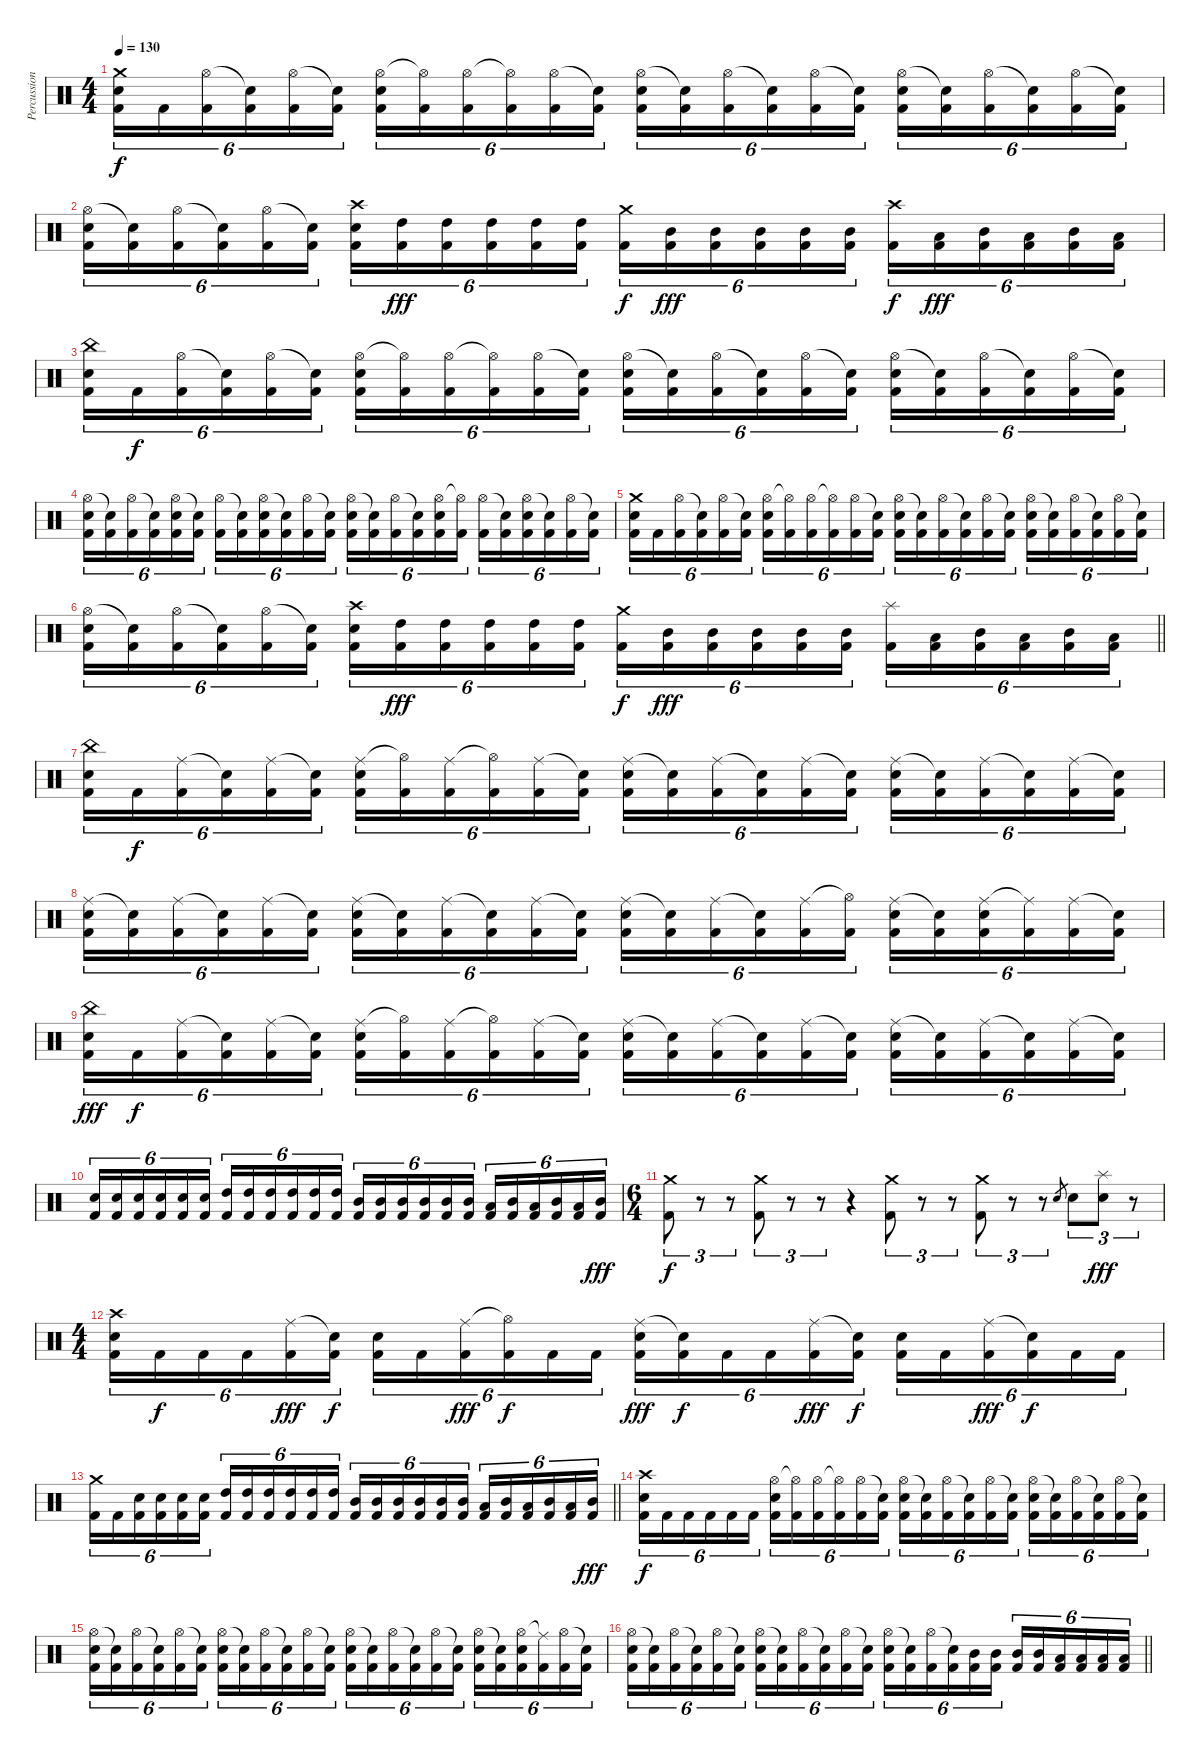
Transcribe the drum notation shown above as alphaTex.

\track ("Percussion" "Percussion") {instrument percussion}
\staff {score}
\articulation defaults
\ts (4 4)
\tempo 130
\clef neutral
\ks c
("Crash medium (hit)" "Snare (hit) 2" "Kick (hit) 2").16{tu (6 4) dy f} "Kick (hit) 2".16{tu (6 4)} ("Hi-Hat (open)" "Kick (hit) 2").16{tu (6 4)} ("Snare (hit)"{t} "Kick (hit) 2").16{tu (6 4)} ("Hi-Hat (open)" "Kick (hit) 2").16{tu (6 4)} ("Snare (hit)"{t} "Kick (hit) 2").16{tu (6 4)} ("Hi-Hat (open)" "Snare (hit) 2" "Kick (hit) 2").16{tu (6 4)} ("Hi-Hat (open)"{t} "Kick (hit) 2").16{tu (6 4)} ("Hi-Hat (open)" "Kick (hit) 2").16{tu (6 4)} ("Hi-Hat (open)"{t} "Kick (hit) 2").16{tu (6 4)} ("Hi-Hat (open)" "Kick (hit) 2").16{tu (6 4)} ("Snare (hit)"{t} "Kick (hit) 2").16{tu (6 4)} ("Hi-Hat (open)" "Snare (hit) 2" "Kick (hit) 2").16{tu (6 4)} ("Snare (hit)"{t} "Kick (hit) 2").16{tu (6 4)} ("Hi-Hat (open)" "Kick (hit) 2").16{tu (6 4)} ("Snare (hit)"{t} "Kick (hit) 2").16{tu (6 4)} ("Hi-Hat (open)" "Kick (hit) 2").16{tu (6 4)} ("Snare (hit)"{t} "Kick (hit) 2").16{tu (6 4)} ("Hi-Hat (open)" "Snare (hit) 2" "Kick (hit) 2").16{tu (6 4)} ("Snare (hit)"{t} "Kick (hit) 2").16{tu (6 4)} ("Hi-Hat (open)" "Kick (hit) 2").16{tu (6 4)} ("Snare (hit)"{t} "Kick (hit) 2").16{tu (6 4)} ("Hi-Hat (open)" "Kick (hit) 2").16{tu (6 4)} ("Snare (hit)"{t} "Kick (hit) 2").16{tu (6 4)} |
("Hi-Hat (open)" "Snare (hit) 2" "Kick (hit) 2").16{tu (6 4)} ("Snare (hit)"{t} "Kick (hit) 2").16{tu (6 4)} ("Hi-Hat (open)" "Kick (hit) 2").16{tu (6 4)} ("Snare (hit)"{t} "Kick (hit) 2").16{tu (6 4)} ("Hi-Hat (open)" "Kick (hit) 2").16{tu (6 4)} ("Snare (hit)"{t} "Kick (hit) 2").16{tu (6 4)} ("Crash high (hit)" "Snare (hit) 2" "Kick (hit) 2").16{tu (6 4)} ("High Tom (hit)" "Kick (hit) 2").16{tu (6 4) dy fff} ("High Tom (hit)" "Kick (hit) 2").16{tu (6 4)} ("High Tom (hit)" "Kick (hit) 2").16{tu (6 4)} ("High Tom (hit)" "Kick (hit) 2").16{tu (6 4)} ("High Tom (hit)" "Kick (hit) 2").16{tu (6 4)} ("Crash medium (hit)" "Kick (hit) 2").16{tu (6 4) dy f} ("Mid Tom (hit)" "Kick (hit) 2").16{tu (6 4) dy fff} ("Mid Tom (hit)" "Kick (hit) 2").16{tu (6 4)} ("Mid Tom (hit)" "Kick (hit) 2").16{tu (6 4)} ("Mid Tom (hit)" "Kick (hit) 2").16{tu (6 4)} ("Mid Tom (hit)" "Kick (hit) 2").16{tu (6 4)} ("Crash high (hit)" "Kick (hit) 2").16{tu (6 4) dy f} ("Low Tom (hit)" "Kick (hit) 2").16{tu (6 4) dy fff} ("Mid Tom (hit)" "Kick (hit) 2").16{tu (6 4)} ("Low Tom (hit)" "Kick (hit) 2").16{tu (6 4)} ("Mid Tom (hit)" "Kick (hit) 2").16{tu (6 4)} ("Low Tom (hit)" "Kick (hit) 2").16{tu (6 4)} |
("China (hit)" "Snare (hit) 2" "Kick (hit) 2").16{tu (6 4)} "Kick (hit) 2".16{tu (6 4) dy f} ("Hi-Hat (open)" "Kick (hit) 2").16{tu (6 4)} ("Snare (hit)"{t} "Kick (hit) 2").16{tu (6 4)} ("Hi-Hat (open)" "Kick (hit) 2").16{tu (6 4)} ("Snare (hit)"{t} "Kick (hit) 2").16{tu (6 4)} ("Hi-Hat (open)" "Snare (hit) 2" "Kick (hit) 2").16{tu (6 4)} ("Hi-Hat (open)"{t} "Kick (hit) 2").16{tu (6 4)} ("Hi-Hat (open)" "Kick (hit) 2").16{tu (6 4)} ("Hi-Hat (open)"{t} "Kick (hit) 2").16{tu (6 4)} ("Hi-Hat (open)" "Kick (hit) 2").16{tu (6 4)} ("Snare (hit)"{t} "Kick (hit) 2").16{tu (6 4)} ("Hi-Hat (open)" "Snare (hit) 2" "Kick (hit) 2").16{tu (6 4)} ("Snare (hit)"{t} "Kick (hit) 2").16{tu (6 4)} ("Hi-Hat (open)" "Kick (hit) 2").16{tu (6 4)} ("Snare (hit)"{t} "Kick (hit) 2").16{tu (6 4)} ("Hi-Hat (open)" "Kick (hit) 2").16{tu (6 4)} ("Snare (hit)"{t} "Kick (hit) 2").16{tu (6 4)} ("Hi-Hat (open)" "Snare (hit) 2" "Kick (hit) 2").16{tu (6 4)} ("Snare (hit)"{t} "Kick (hit) 2").16{tu (6 4)} ("Hi-Hat (open)" "Kick (hit) 2").16{tu (6 4)} ("Snare (hit)"{t} "Kick (hit) 2").16{tu (6 4)} ("Hi-Hat (open)" "Kick (hit) 2").16{tu (6 4)} ("Snare (hit)"{t} "Kick (hit) 2").16{tu (6 4)} |
("Hi-Hat (open)" "Snare (hit) 2" "Kick (hit) 2").16{tu (6 4)} ("Snare (hit)"{t} "Kick (hit) 2").16{tu (6 4)} ("Hi-Hat (open)" "Kick (hit) 2").16{tu (6 4)} ("Snare (hit)"{t} "Kick (hit) 2").16{tu (6 4)} ("Hi-Hat (open)" "Snare (hit) 2" "Kick (hit) 2").16{tu (6 4)} ("Snare (hit)"{t} "Kick (hit) 2").16{tu (6 4)} ("Hi-Hat (open)" "Kick (hit) 2").16{tu (6 4)} ("Snare (hit)"{t} "Kick (hit) 2").16{tu (6 4)} ("Hi-Hat (open)" "Snare (hit) 2" "Kick (hit) 2").16{tu (6 4)} ("Snare (hit)"{t} "Kick (hit) 2").16{tu (6 4)} ("Hi-Hat (open)" "Kick (hit) 2").16{tu (6 4)} ("Snare (hit)"{t} "Kick (hit) 2").16{tu (6 4)} ("Hi-Hat (open)" "Snare (hit) 2" "Kick (hit) 2").16{tu (6 4)} ("Snare (hit)"{t} "Kick (hit) 2").16{tu (6 4)} ("Hi-Hat (open)" "Kick (hit) 2").16{tu (6 4)} ("Snare (hit)"{t} "Kick (hit) 2").16{tu (6 4)} ("Hi-Hat (open)" "Snare (hit) 2" "Kick (hit) 2").16{tu (6 4)} ("Hi-Hat (open)"{t} "Kick (hit) 2").16{tu (6 4)} ("Hi-Hat (open)" "Kick (hit) 2").16{tu (6 4)} ("Snare (hit)"{t} "Kick (hit) 2").16{tu (6 4)} ("Hi-Hat (open)" "Snare (hit) 2" "Kick (hit) 2").16{tu (6 4)} ("Snare (hit)"{t} "Kick (hit) 2").16{tu (6 4)} ("Hi-Hat (open)" "Kick (hit) 2").16{tu (6 4)} ("Snare (hit)"{t} "Kick (hit) 2").16{tu (6 4)} |
("Crash medium (hit)" "Snare (hit) 2" "Kick (hit) 2").16{tu (6 4)} "Kick (hit) 2".16{tu (6 4)} ("Hi-Hat (open)" "Kick (hit) 2").16{tu (6 4)} ("Snare (hit)"{t} "Kick (hit) 2").16{tu (6 4)} ("Hi-Hat (open)" "Kick (hit) 2").16{tu (6 4)} ("Snare (hit)"{t} "Kick (hit) 2").16{tu (6 4)} ("Hi-Hat (open)" "Snare (hit) 2" "Kick (hit) 2").16{tu (6 4)} ("Hi-Hat (open)"{t} "Kick (hit) 2").16{tu (6 4)} ("Hi-Hat (open)" "Kick (hit) 2").16{tu (6 4)} ("Hi-Hat (open)"{t} "Kick (hit) 2").16{tu (6 4)} ("Hi-Hat (open)" "Kick (hit) 2").16{tu (6 4)} ("Snare (hit)"{t} "Kick (hit) 2").16{tu (6 4)} ("Hi-Hat (open)" "Snare (hit) 2" "Kick (hit) 2").16{tu (6 4)} ("Snare (hit)"{t} "Kick (hit) 2").16{tu (6 4)} ("Hi-Hat (open)" "Kick (hit) 2").16{tu (6 4)} ("Snare (hit)"{t} "Kick (hit) 2").16{tu (6 4)} ("Hi-Hat (open)" "Kick (hit) 2").16{tu (6 4)} ("Snare (hit)"{t} "Kick (hit) 2").16{tu (6 4)} ("Hi-Hat (open)" "Snare (hit) 2" "Kick (hit) 2").16{tu (6 4)} ("Snare (hit)"{t} "Kick (hit) 2").16{tu (6 4)} ("Hi-Hat (open)" "Kick (hit) 2").16{tu (6 4)} ("Snare (hit)"{t} "Kick (hit) 2").16{tu (6 4)} ("Hi-Hat (open)" "Kick (hit) 2").16{tu (6 4)} ("Snare (hit)"{t} "Kick (hit) 2").16{tu (6 4)} |
\barLineRight lightlight
("Hi-Hat (open)" "Snare (hit) 2" "Kick (hit) 2").16{tu (6 4)} ("Snare (hit)"{t} "Kick (hit) 2").16{tu (6 4)} ("Hi-Hat (open)" "Kick (hit) 2").16{tu (6 4)} ("Snare (hit)"{t} "Kick (hit) 2").16{tu (6 4)} ("Hi-Hat (open)" "Kick (hit) 2").16{tu (6 4)} ("Snare (hit)"{t} "Kick (hit) 2").16{tu (6 4)} ("Crash high (hit)" "Snare (hit) 2" "Kick (hit) 2").16{tu (6 4)} ("High Tom (hit)" "Kick (hit) 2").16{tu (6 4) dy fff} ("High Tom (hit)" "Kick (hit) 2").16{tu (6 4)} ("High Tom (hit)" "Kick (hit) 2").16{tu (6 4)} ("High Tom (hit)" "Kick (hit) 2").16{tu (6 4)} ("High Tom (hit)" "Kick (hit) 2").16{tu (6 4)} ("Crash medium (hit)" "Kick (hit) 2").16{tu (6 4) dy f} ("Mid Tom (hit)" "Kick (hit) 2").16{tu (6 4) dy fff} ("Mid Tom (hit)" "Kick (hit) 2").16{tu (6 4)} ("Mid Tom (hit)" "Kick (hit) 2").16{tu (6 4)} ("Mid Tom (hit)" "Kick (hit) 2").16{tu (6 4)} ("Mid Tom (hit)" "Kick (hit) 2").16{tu (6 4)} ("Splash (hit)" "Kick (hit) 2").16{tu (6 4)} ("Low Tom (hit)" "Kick (hit) 2").16{tu (6 4)} ("Mid Tom (hit)" "Kick (hit) 2").16{tu (6 4)} ("Low Tom (hit)" "Kick (hit) 2").16{tu (6 4)} ("Mid Tom (hit)" "Kick (hit) 2").16{tu (6 4)} ("Low Tom (hit)" "Kick (hit) 2").16{tu (6 4)} |
("China (hit)" "Snare (hit) 2" "Kick (hit) 2").16{tu (6 4)} "Kick (hit) 2".16{tu (6 4) dy f} ("Ride (middle)" "Kick (hit) 2").16{tu (6 4)} ("Snare (hit)"{t} "Kick (hit) 2").16{tu (6 4)} ("Ride (middle)" "Kick (hit) 2").16{tu (6 4)} ("Snare (hit)"{t} "Kick (hit) 2").16{tu (6 4)} ("Ride (middle)" "Snare (hit) 2" "Kick (hit) 2").16{tu (6 4)} ("Hi-Hat (open)"{t} "Kick (hit) 2").16{tu (6 4)} ("Ride (middle)" "Kick (hit) 2").16{tu (6 4)} ("Hi-Hat (open)"{t} "Kick (hit) 2").16{tu (6 4)} ("Ride (middle)" "Kick (hit) 2").16{tu (6 4)} ("Snare (hit)"{t} "Kick (hit) 2").16{tu (6 4)} ("Ride (middle)" "Snare (hit) 2" "Kick (hit) 2").16{tu (6 4)} ("Snare (hit)"{t} "Kick (hit) 2").16{tu (6 4)} ("Ride (middle)" "Kick (hit) 2").16{tu (6 4)} ("Snare (hit)"{t} "Kick (hit) 2").16{tu (6 4)} ("Ride (middle)" "Kick (hit) 2").16{tu (6 4)} ("Snare (hit)"{t} "Kick (hit) 2").16{tu (6 4)} ("Ride (middle)" "Snare (hit) 2" "Kick (hit) 2").16{tu (6 4)} ("Snare (hit)"{t} "Kick (hit) 2").16{tu (6 4)} ("Ride (middle)" "Kick (hit) 2").16{tu (6 4)} ("Snare (hit)"{t} "Kick (hit) 2").16{tu (6 4)} ("Ride (middle)" "Kick (hit) 2").16{tu (6 4)} ("Snare (hit)"{t} "Kick (hit) 2").16{tu (6 4)} |
("Ride (middle)" "Snare (hit) 2" "Kick (hit) 2").16{tu (6 4)} ("Snare (hit)"{t} "Kick (hit) 2").16{tu (6 4)} ("Ride (middle)" "Kick (hit) 2").16{tu (6 4)} ("Snare (hit)"{t} "Kick (hit) 2").16{tu (6 4)} ("Ride (middle)" "Kick (hit) 2").16{tu (6 4)} ("Snare (hit)"{t} "Kick (hit) 2").16{tu (6 4)} ("Ride (middle)" "Snare (hit) 2" "Kick (hit) 2").16{tu (6 4)} ("Snare (hit)"{t} "Kick (hit) 2").16{tu (6 4)} ("Ride (middle)" "Kick (hit) 2").16{tu (6 4)} ("Snare (hit)"{t} "Kick (hit) 2").16{tu (6 4)} ("Ride (middle)" "Kick (hit) 2").16{tu (6 4)} ("Snare (hit)"{t} "Kick (hit) 2").16{tu (6 4)} ("Ride (middle)" "Snare (hit) 2" "Kick (hit) 2").16{tu (6 4)} ("Snare (hit)"{t} "Kick (hit) 2").16{tu (6 4)} ("Ride (middle)" "Kick (hit) 2").16{tu (6 4)} ("Snare (hit)"{t} "Kick (hit) 2").16{tu (6 4)} ("Ride (middle)" "Kick (hit) 2").16{tu (6 4)} ("Hi-Hat (open)"{t} "Kick (hit) 2").16{tu (6 4)} ("Ride (middle)" "Snare (hit) 2" "Kick (hit) 2").16{tu (6 4)} ("Snare (hit)"{t} "Kick (hit) 2").16{tu (6 4)} ("Ride (middle)" "Snare (hit) 2" "Kick (hit) 2").16{tu (6 4)} ("Ride (middle)"{t} "Kick (hit) 2").16{tu (6 4)} ("Ride (middle)" "Kick (hit) 2").16{tu (6 4)} ("Snare (hit)"{t} "Kick (hit) 2").16{tu (6 4)} |
("China (hit)" "Snare (hit) 2" "Kick (hit) 2").16{tu (6 4) dy fff} "Kick (hit) 2".16{tu (6 4) dy f} ("Ride (middle)" "Kick (hit) 2").16{tu (6 4)} ("Snare (hit)"{t} "Kick (hit) 2").16{tu (6 4)} ("Ride (middle)" "Kick (hit) 2").16{tu (6 4)} ("Snare (hit)"{t} "Kick (hit) 2").16{tu (6 4)} ("Ride (middle)" "Snare (hit) 2" "Kick (hit) 2").16{tu (6 4)} ("Hi-Hat (open)"{t} "Kick (hit) 2").16{tu (6 4)} ("Ride (middle)" "Kick (hit) 2").16{tu (6 4)} ("Hi-Hat (open)"{t} "Kick (hit) 2").16{tu (6 4)} ("Ride (middle)" "Kick (hit) 2").16{tu (6 4)} ("Snare (hit)"{t} "Kick (hit) 2").16{tu (6 4)} ("Ride (middle)" "Snare (hit) 2" "Kick (hit) 2").16{tu (6 4)} ("Snare (hit)"{t} "Kick (hit) 2").16{tu (6 4)} ("Ride (middle)" "Kick (hit) 2").16{tu (6 4)} ("Snare (hit)"{t} "Kick (hit) 2").16{tu (6 4)} ("Ride (middle)" "Kick (hit) 2").16{tu (6 4)} ("Snare (hit)"{t} "Kick (hit) 2").16{tu (6 4)} ("Ride (middle)" "Snare (hit) 2" "Kick (hit) 2").16{tu (6 4)} ("Snare (hit)"{t} "Kick (hit) 2").16{tu (6 4)} ("Ride (middle)" "Kick (hit) 2").16{tu (6 4)} ("Snare (hit)"{t} "Kick (hit) 2").16{tu (6 4)} ("Ride (middle)" "Kick (hit) 2").16{tu (6 4)} ("Snare (hit)"{t} "Kick (hit) 2").16{tu (6 4)} |
("Snare (hit) 2" "Kick (hit) 2").16{tu (6 4)} ("Snare (hit) 2" "Kick (hit) 2").16{tu (6 4)} ("Snare (hit) 2" "Kick (hit) 2").16{tu (6 4)} ("Snare (hit) 2" "Kick (hit) 2").16{tu (6 4)} ("Snare (hit) 2" "Kick (hit) 2").16{tu (6 4)} ("Snare (hit) 2" "Kick (hit) 2").16{tu (6 4)} ("High Tom (hit)" "Kick (hit) 2").16{tu (6 4)} ("High Tom (hit)" "Kick (hit) 2").16{tu (6 4)} ("High Tom (hit)" "Kick (hit) 2").16{tu (6 4)} ("High Tom (hit)" "Kick (hit) 2").16{tu (6 4)} ("High Tom (hit)" "Kick (hit) 2").16{tu (6 4)} ("High Tom (hit)" "Kick (hit) 2").16{tu (6 4)} ("Mid Tom (hit)" "Kick (hit) 2").16{tu (6 4)} ("Mid Tom (hit)" "Kick (hit) 2").16{tu (6 4)} ("Mid Tom (hit)" "Kick (hit) 2").16{tu (6 4)} ("Mid Tom (hit)" "Kick (hit) 2").16{tu (6 4)} ("Mid Tom (hit)" "Kick (hit) 2").16{tu (6 4)} ("Mid Tom (hit)" "Kick (hit) 2").16{tu (6 4)} ("Low Tom (hit)" "Kick (hit) 2").16{tu (6 4)} ("Mid Tom (hit)" "Kick (hit) 2").16{tu (6 4)} ("Low Tom (hit)" "Kick (hit) 2").16{tu (6 4)} ("Mid Tom (hit)" "Kick (hit) 2").16{tu (6 4)} ("Low Tom (hit)" "Kick (hit) 2").16{tu (6 4)} ("Mid Tom (hit)" "Kick (hit) 2").16{tu (6 4) dy fff} |
\ts (6 4)
("Crash medium (hit)" "Kick (hit) 2").8{tu (3 2) dy f} r.8{tu (3 2)} r.8{tu (3 2)} ("Crash medium (hit)" "Kick (hit) 2").8{tu (3 2)} r.8{tu (3 2)} r.8{tu (3 2) volume 0} r.4 ("Crash medium (hit)" "Kick (hit) 2").8{tu (3 2) volume 15} r.8{tu (3 2)} r.8{tu (3 2)} ("Crash medium (hit)" "Kick (hit) 2").8{tu (3 2)} r.8{tu (3 2)} r.8{tu (3 2)} "Snare (hit) 2".8{gr} "Snare (hit) 2".8{tu (3 2)} ("Splash (hit)" "Snare (hit) 2").8{tu (3 2) dy fff} r.8{tu (3 2)} |
\ts (4 4)
("Crash high (hit)" "Snare (hit) 2" "Kick (hit) 2").16{tu (6 4)} "Kick (hit) 2".16{tu (6 4) dy f} "Kick (hit) 2".16{tu (6 4)} "Kick (hit) 2".16{tu (6 4)} ("Ride (middle)" "Kick (hit) 2").16{tu (6 4) dy fff} ("Snare (hit)"{t} "Kick (hit) 2").16{tu (6 4) dy f} ("Snare (hit) 2" "Kick (hit) 2").16{tu (6 4)} "Kick (hit) 2".16{tu (6 4)} ("Ride (middle)" "Kick (hit) 2").16{tu (6 4) dy fff} ("Hi-Hat (open)"{t} "Kick (hit) 2").16{tu (6 4) dy f} "Kick (hit) 2".16{tu (6 4)} "Kick (hit) 2".16{tu (6 4)} ("Ride (middle)" "Snare (hit) 2" "Kick (hit) 2").16{tu (6 4) dy fff} ("Snare (hit)"{t} "Kick (hit) 2").16{tu (6 4) dy f} "Kick (hit) 2".16{tu (6 4)} "Kick (hit) 2".16{tu (6 4)} ("Ride (middle)" "Kick (hit) 2").16{tu (6 4) dy fff} ("Snare (hit)"{t} "Kick (hit) 2").16{tu (6 4) dy f} ("Snare (hit) 2" "Kick (hit) 2").16{tu (6 4)} "Kick (hit) 2".16{tu (6 4)} ("Ride (middle)" "Kick (hit) 2").16{tu (6 4) dy fff} ("Snare (hit)"{t} "Kick (hit) 2").16{tu (6 4) dy f} "Kick (hit) 2".16{tu (6 4)} "Kick (hit) 2".16{tu (6 4)} |
\barLineRight lightlight
("Crash medium (hit)" "Kick (hit) 2").16{tu (6 4)} "Kick (hit) 2".16{tu (6 4)} ("Snare (hit) 2" "Kick (hit) 2").16{tu (6 4)} ("Snare (hit) 2" "Kick (hit) 2").16{tu (6 4)} ("Snare (hit) 2" "Kick (hit) 2").16{tu (6 4)} ("Snare (hit) 2" "Kick (hit) 2").16{tu (6 4)} ("High Tom (hit)" "Kick (hit) 2").16{tu (6 4)} ("High Tom (hit)" "Kick (hit) 2").16{tu (6 4)} ("High Tom (hit)" "Kick (hit) 2").16{tu (6 4)} ("High Tom (hit)" "Kick (hit) 2").16{tu (6 4)} ("High Tom (hit)" "Kick (hit) 2").16{tu (6 4)} ("High Tom (hit)" "Kick (hit) 2").16{tu (6 4)} ("Mid Tom (hit)" "Kick (hit) 2").16{tu (6 4)} ("Mid Tom (hit)" "Kick (hit) 2").16{tu (6 4)} ("Mid Tom (hit)" "Kick (hit) 2").16{tu (6 4)} ("Mid Tom (hit)" "Kick (hit) 2").16{tu (6 4)} ("Mid Tom (hit)" "Kick (hit) 2").16{tu (6 4)} ("Mid Tom (hit)" "Kick (hit) 2").16{tu (6 4)} ("Low Tom (hit)" "Kick (hit) 2").16{tu (6 4)} ("Mid Tom (hit)" "Kick (hit) 2").16{tu (6 4)} ("Low Tom (hit)" "Kick (hit) 2").16{tu (6 4)} ("Mid Tom (hit)" "Kick (hit) 2").16{tu (6 4)} ("Low Tom (hit)" "Kick (hit) 2").16{tu (6 4)} ("Mid Tom (hit)" "Kick (hit) 2").16{tu (6 4) dy fff} |
("Crash high (hit)" "Snare (hit) 2" "Kick (hit) 2").16{tu (6 4) dy f} "Kick (hit) 2".16{tu (6 4)} "Kick (hit) 2".16{tu (6 4)} "Kick (hit) 2".16{tu (6 4)} "Kick (hit) 2".16{tu (6 4)} "Kick (hit) 2".16{tu (6 4)} ("Hi-Hat (open)" "Snare (hit) 2" "Kick (hit) 2").16{tu (6 4)} ("Hi-Hat (open)"{t} "Kick (hit) 2").16{tu (6 4)} ("Hi-Hat (open)" "Kick (hit) 2").16{tu (6 4)} ("Hi-Hat (open)"{t} "Kick (hit) 2").16{tu (6 4)} ("Hi-Hat (open)" "Kick (hit) 2").16{tu (6 4)} ("Snare (hit)"{t} "Kick (hit) 2").16{tu (6 4)} ("Hi-Hat (open)" "Snare (hit) 2" "Kick (hit) 2").16{tu (6 4)} ("Snare (hit)"{t} "Kick (hit) 2").16{tu (6 4)} ("Hi-Hat (open)" "Kick (hit) 2").16{tu (6 4)} ("Snare (hit)"{t} "Kick (hit) 2").16{tu (6 4)} ("Hi-Hat (open)" "Kick (hit) 2").16{tu (6 4)} ("Snare (hit)"{t} "Kick (hit) 2").16{tu (6 4)} ("Hi-Hat (open)" "Snare (hit) 2" "Kick (hit) 2").16{tu (6 4)} ("Snare (hit)"{t} "Kick (hit) 2").16{tu (6 4)} ("Hi-Hat (open)" "Kick (hit) 2").16{tu (6 4)} ("Snare (hit)"{t} "Kick (hit) 2").16{tu (6 4)} ("Hi-Hat (open)" "Kick (hit) 2").16{tu (6 4)} ("Snare (hit)"{t} "Kick (hit) 2").16{tu (6 4)} |
("Hi-Hat (open)" "Snare (hit) 2" "Kick (hit) 2").16{tu (6 4)} ("Snare (hit)"{t} "Kick (hit) 2").16{tu (6 4)} ("Hi-Hat (open)" "Kick (hit) 2").16{tu (6 4)} ("Snare (hit)"{t} "Kick (hit) 2").16{tu (6 4)} ("Hi-Hat (open)" "Kick (hit) 2").16{tu (6 4)} ("Snare (hit)"{t} "Kick (hit) 2").16{tu (6 4)} ("Hi-Hat (open)" "Snare (hit) 2" "Kick (hit) 2").16{tu (6 4)} ("Snare (hit)"{t} "Kick (hit) 2").16{tu (6 4)} ("Hi-Hat (open)" "Kick (hit) 2").16{tu (6 4)} ("Snare (hit)"{t} "Kick (hit) 2").16{tu (6 4)} ("Hi-Hat (open)" "Kick (hit) 2").16{tu (6 4)} ("Snare (hit)"{t} "Kick (hit) 2").16{tu (6 4)} ("Hi-Hat (open)" "Snare (hit) 2" "Kick (hit) 2").16{tu (6 4)} ("Snare (hit)"{t} "Kick (hit) 2").16{tu (6 4)} ("Hi-Hat (open)" "Kick (hit) 2").16{tu (6 4)} ("Snare (hit)"{t} "Kick (hit) 2").16{tu (6 4)} ("Hi-Hat (open)" "Kick (hit) 2").16{tu (6 4)} ("Snare (hit)"{t} "Kick (hit) 2").16{tu (6 4)} ("Hi-Hat (open)" "Snare (hit) 2" "Kick (hit) 2").16{tu (6 4)} ("Snare (hit)"{t} "Kick (hit) 2").16{tu (6 4)} ("Hi-Hat (open)" "Snare (hit) 2" "Kick (hit) 2").16{tu (6 4)} ("Ride (middle)"{t} "Kick (hit) 2").16{tu (6 4)} ("Hi-Hat (open)" "Kick (hit) 2").16{tu (6 4)} ("Snare (hit)"{t} "Kick (hit) 2").16{tu (6 4)} |
\barLineRight lightlight
("Hi-Hat (open)" "Snare (hit) 2" "Kick (hit) 2").16{tu (6 4)} ("Snare (hit)"{t} "Kick (hit) 2").16{tu (6 4)} ("Hi-Hat (open)" "Kick (hit) 2").16{tu (6 4)} ("Snare (hit)"{t} "Kick (hit) 2").16{tu (6 4)} ("Hi-Hat (open)" "Kick (hit) 2").16{tu (6 4)} ("Snare (hit)"{t} "Kick (hit) 2").16{tu (6 4)} ("Hi-Hat (open)" "Snare (hit) 2" "Kick (hit) 2").16{tu (6 4)} ("Snare (hit)"{t} "Kick (hit) 2").16{tu (6 4)} ("Hi-Hat (open)" "Kick (hit) 2").16{tu (6 4)} ("Snare (hit)"{t} "Kick (hit) 2").16{tu (6 4)} ("Hi-Hat (open)" "Kick (hit) 2").16{tu (6 4)} ("Snare (hit)"{t} "Kick (hit) 2").16{tu (6 4)} ("Hi-Hat (open)" "Snare (hit) 2" "Kick (hit) 2").16{tu (6 4)} ("Snare (hit)"{t} "Kick (hit) 2").16{tu (6 4)} ("Hi-Hat (open)" "Kick (hit) 2").16{tu (6 4)} ("Snare (hit)"{t} "Kick (hit) 2").16{tu (6 4)} ("Mid Tom (hit)" "Kick (hit) 2").16{tu (6 4)} ("Mid Tom (hit)" "Kick (hit) 2").16{tu (6 4)} ("Mid Tom (hit)" "Kick (hit) 2").16{tu (6 4)} ("Mid Tom (hit)" "Kick (hit) 2").16{tu (6 4)} ("Low Tom (hit)" "Kick (hit) 2").16{tu (6 4)} ("Low Tom (hit)" "Kick (hit) 2").16{tu (6 4)} ("Low Tom (hit)" "Kick (hit) 2").16{tu (6 4)} ("Low Tom (hit)" "Kick (hit) 2").16{tu (6 4)}
